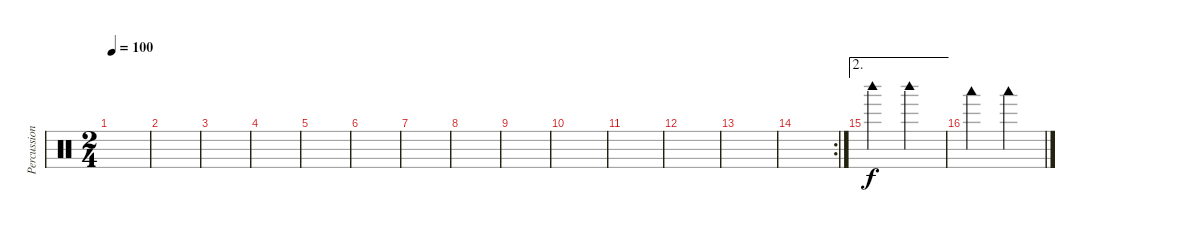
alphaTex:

\track ("Percussion" "Percussion") {instrument percussion}
\staff {score}
\articulation defaults
\ts (2 4)
\tempo 100
\clef neutral
\ks c
|
|
|
|
|
|
|
|
|
|
|
|
|
\rc 2
|
\ae 2 "Woodblock high (hit)".4 "Woodblock high (hit)".4
|
"Woodblock low (hit)".4 "Woodblock low (hit)".4
